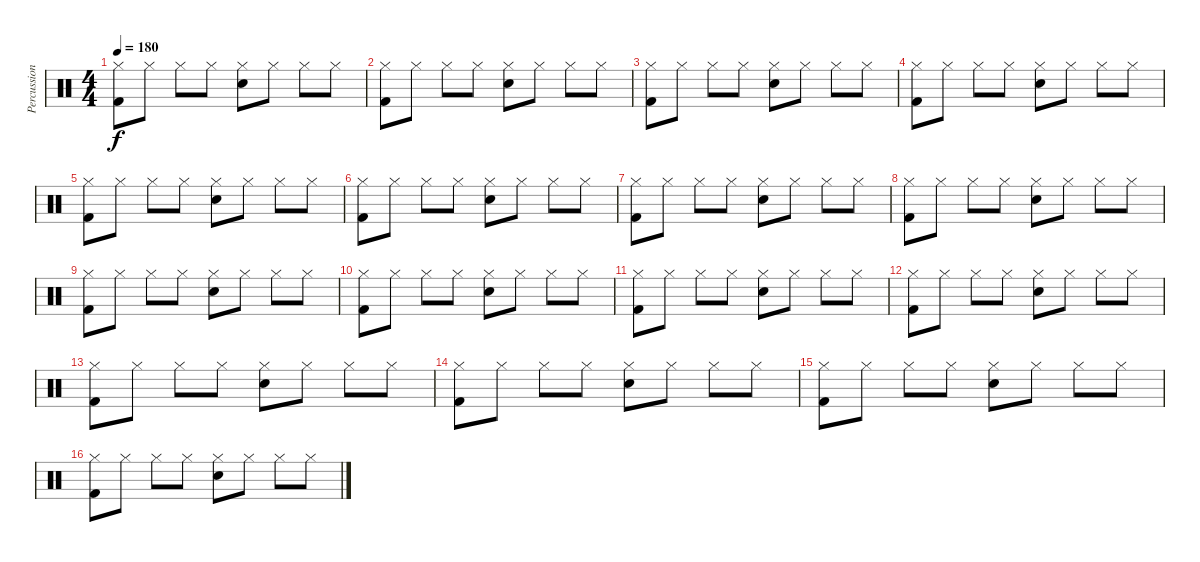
\track ("Percussion / Drums" "Percussion") {instrument percussion}
\staff {score}
\articulation defaults
\ts (4 4)
\tempo 180
\clef neutral
\ks c
("Kick (hit) 2" "Hi-Hat (closed)").8{dy f} "Hi-Hat (closed)".8 "Hi-Hat (closed)".8 "Hi-Hat (closed)".8 ("Snare (hit) 2" "Hi-Hat (closed)").8 "Hi-Hat (closed)".8 "Hi-Hat (closed)".8 "Hi-Hat (closed)".8 |
("Kick (hit) 2" "Hi-Hat (closed)").8 "Hi-Hat (closed)".8 "Hi-Hat (closed)".8 "Hi-Hat (closed)".8 ("Snare (hit) 2" "Hi-Hat (closed)").8 "Hi-Hat (closed)".8 "Hi-Hat (closed)".8 "Hi-Hat (closed)".8 |
("Kick (hit) 2" "Hi-Hat (closed)").8 "Hi-Hat (closed)".8 "Hi-Hat (closed)".8 "Hi-Hat (closed)".8 ("Snare (hit) 2" "Hi-Hat (closed)").8 "Hi-Hat (closed)".8 "Hi-Hat (closed)".8 "Hi-Hat (closed)".8 |
("Kick (hit) 2" "Hi-Hat (closed)").8 "Hi-Hat (closed)".8 "Hi-Hat (closed)".8 "Hi-Hat (closed)".8 ("Snare (hit) 2" "Hi-Hat (closed)").8 "Hi-Hat (closed)".8 "Hi-Hat (closed)".8 "Hi-Hat (closed)".8 |
("Kick (hit) 2" "Hi-Hat (closed)").8 "Hi-Hat (closed)".8 "Hi-Hat (closed)".8 "Hi-Hat (closed)".8 ("Snare (hit) 2" "Hi-Hat (closed)").8 "Hi-Hat (closed)".8 "Hi-Hat (closed)".8 "Hi-Hat (closed)".8 |
("Kick (hit) 2" "Hi-Hat (closed)").8 "Hi-Hat (closed)".8 "Hi-Hat (closed)".8 "Hi-Hat (closed)".8 ("Snare (hit) 2" "Hi-Hat (closed)").8 "Hi-Hat (closed)".8 "Hi-Hat (closed)".8 "Hi-Hat (closed)".8 |
("Kick (hit) 2" "Hi-Hat (closed)").8 "Hi-Hat (closed)".8 "Hi-Hat (closed)".8 "Hi-Hat (closed)".8 ("Snare (hit) 2" "Hi-Hat (closed)").8 "Hi-Hat (closed)".8 "Hi-Hat (closed)".8 "Hi-Hat (closed)".8 |
("Kick (hit) 2" "Hi-Hat (closed)").8 "Hi-Hat (closed)".8 "Hi-Hat (closed)".8 "Hi-Hat (closed)".8 ("Snare (hit) 2" "Hi-Hat (closed)").8 "Hi-Hat (closed)".8 "Hi-Hat (closed)".8 "Hi-Hat (closed)".8 |
("Kick (hit) 2" "Hi-Hat (closed)").8 "Hi-Hat (closed)".8 "Hi-Hat (closed)".8 "Hi-Hat (closed)".8 ("Snare (hit) 2" "Hi-Hat (closed)").8 "Hi-Hat (closed)".8 "Hi-Hat (closed)".8 "Hi-Hat (closed)".8 |
("Kick (hit) 2" "Hi-Hat (closed)").8 "Hi-Hat (closed)".8 "Hi-Hat (closed)".8 "Hi-Hat (closed)".8 ("Snare (hit) 2" "Hi-Hat (closed)").8 "Hi-Hat (closed)".8 "Hi-Hat (closed)".8 "Hi-Hat (closed)".8 |
("Kick (hit) 2" "Hi-Hat (closed)").8 "Hi-Hat (closed)".8 "Hi-Hat (closed)".8 "Hi-Hat (closed)".8 ("Snare (hit) 2" "Hi-Hat (closed)").8 "Hi-Hat (closed)".8 "Hi-Hat (closed)".8 "Hi-Hat (closed)".8 |
("Kick (hit) 2" "Hi-Hat (closed)").8 "Hi-Hat (closed)".8 "Hi-Hat (closed)".8 "Hi-Hat (closed)".8 ("Snare (hit) 2" "Hi-Hat (closed)").8 "Hi-Hat (closed)".8 "Hi-Hat (closed)".8 "Hi-Hat (closed)".8 |
("Kick (hit) 2" "Hi-Hat (closed)").8 "Hi-Hat (closed)".8 "Hi-Hat (closed)".8 "Hi-Hat (closed)".8 ("Snare (hit) 2" "Hi-Hat (closed)").8 "Hi-Hat (closed)".8 "Hi-Hat (closed)".8 "Hi-Hat (closed)".8 |
("Kick (hit) 2" "Hi-Hat (closed)").8 "Hi-Hat (closed)".8 "Hi-Hat (closed)".8 "Hi-Hat (closed)".8 ("Snare (hit) 2" "Hi-Hat (closed)").8 "Hi-Hat (closed)".8 "Hi-Hat (closed)".8 "Hi-Hat (closed)".8 |
("Kick (hit) 2" "Hi-Hat (closed)").8 "Hi-Hat (closed)".8 "Hi-Hat (closed)".8 "Hi-Hat (closed)".8 ("Snare (hit) 2" "Hi-Hat (closed)").8 "Hi-Hat (closed)".8 "Hi-Hat (closed)".8 "Hi-Hat (closed)".8 |
("Kick (hit) 2" "Hi-Hat (closed)").8 "Hi-Hat (closed)".8 "Hi-Hat (closed)".8 "Hi-Hat (closed)".8 ("Snare (hit) 2" "Hi-Hat (closed)").8 "Hi-Hat (closed)".8 "Hi-Hat (closed)".8 "Hi-Hat (closed)".8
